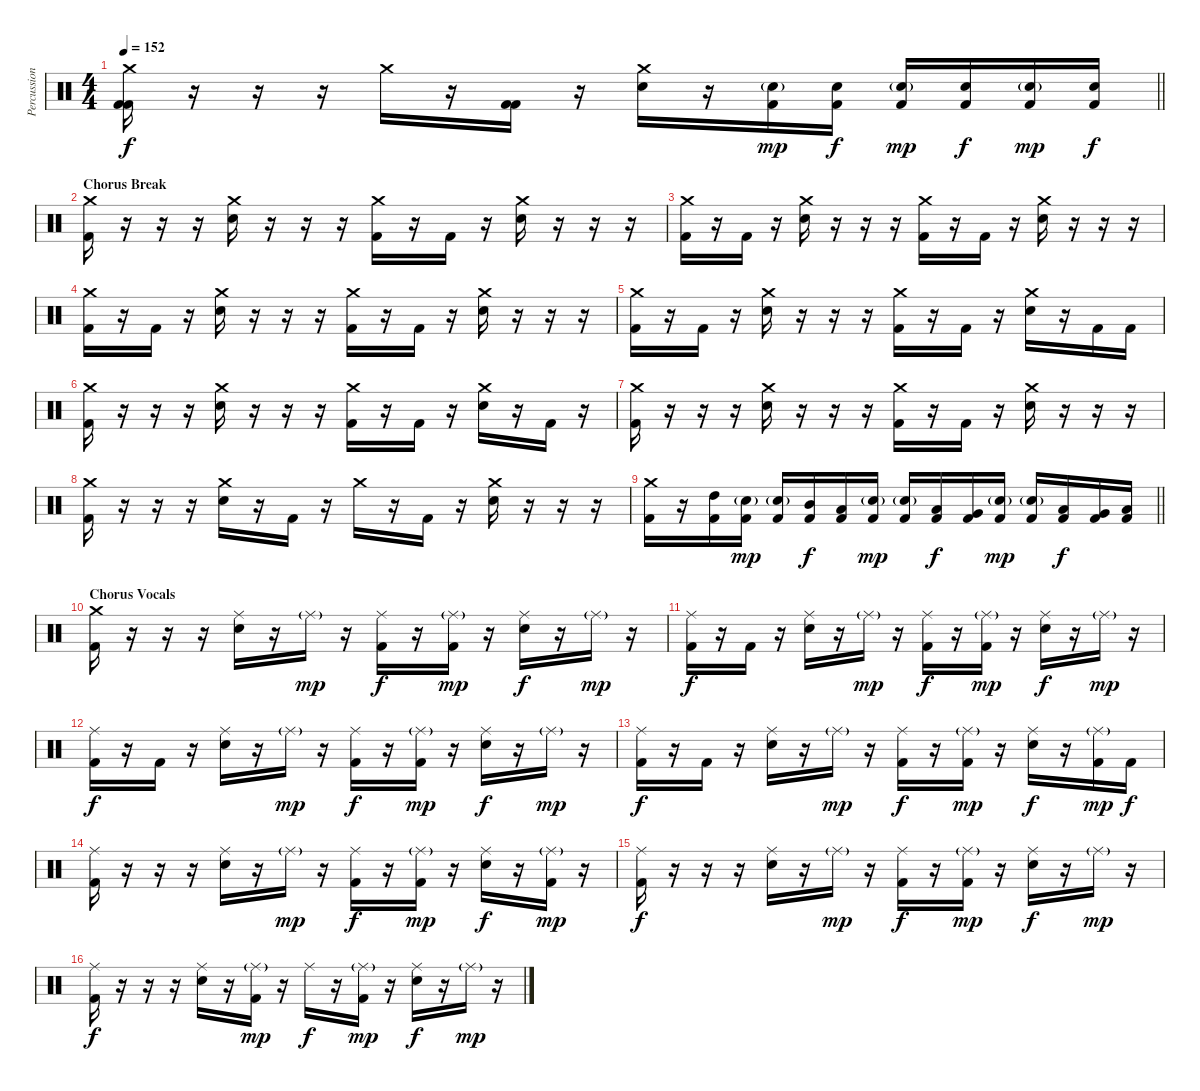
\track ("Percussion" "Percussion") {instrument percussion}
\staff {score}
\articulation defaults
\ts (4 4)
\tempo 152
\clef neutral
\barLineRight lightlight
\ks c
("Crash medium (hit)" "Kick (hit) 2" "Kick (hit) 2").16{dy f} r.16 r.16 r.16 "Crash medium (hit)".16 r.16 ("Kick (hit) 2" "Kick (hit) 2").16 r.16 ("Crash medium (hit)" "Snare (hit) 2").16 r.16 ("Snare (hit) 2"{g} "Kick (hit) 2").16{dy mp} ("Snare (hit) 2" "Kick (hit) 2").16{dy f} ("Snare (hit) 2"{g} "Kick (hit) 2").16{dy mp} ("Snare (hit) 2" "Kick (hit) 2").16{dy f} ("Snare (hit) 2"{g} "Kick (hit) 2").16{dy mp} ("Snare (hit) 2" "Kick (hit) 2").16{dy f} |
\section ("" "Chorus Break")
("Crash medium (hit)" "Kick (hit) 2").16 r.16 r.16 r.16 ("Crash medium (hit)" "Snare (hit) 2").16 r.16 r.16 r.16 ("Crash medium (hit)" "Kick (hit) 2").16 r.16 "Kick (hit) 2".16 r.16 ("Crash medium (hit)" "Snare (hit) 2").16 r.16 r.16 r.16 |
("Crash medium (hit)" "Kick (hit) 2").16 r.16 "Kick (hit) 2".16 r.16 ("Crash medium (hit)" "Snare (hit) 2").16 r.16 r.16 r.16 ("Crash medium (hit)" "Kick (hit) 2").16 r.16 "Kick (hit) 2".16 r.16 ("Crash medium (hit)" "Snare (hit) 2").16 r.16 r.16 r.16 |
("Crash medium (hit)" "Kick (hit) 2").16 r.16 "Kick (hit) 2".16 r.16 ("Crash medium (hit)" "Snare (hit) 2").16 r.16 r.16 r.16 ("Crash medium (hit)" "Kick (hit) 2").16 r.16 "Kick (hit) 2".16 r.16 ("Crash medium (hit)" "Snare (hit) 2").16 r.16 r.16 r.16 |
("Crash medium (hit)" "Kick (hit) 2").16 r.16 "Kick (hit) 2".16 r.16 ("Crash medium (hit)" "Snare (hit) 2").16 r.16 r.16 r.16 ("Crash medium (hit)" "Kick (hit) 2").16 r.16 "Kick (hit) 2".16 r.16 ("Crash medium (hit)" "Snare (hit) 2").16 r.16 "Kick (hit) 2".16 "Kick (hit) 2".16 |
("Crash medium (hit)" "Kick (hit) 2").16 r.16 r.16 r.16 ("Crash medium (hit)" "Snare (hit) 2").16 r.16 r.16 r.16 ("Crash medium (hit)" "Kick (hit) 2").16 r.16 "Kick (hit) 2".16 r.16 ("Crash medium (hit)" "Snare (hit) 2").16 r.16 "Kick (hit) 2".16 r.16 |
("Crash medium (hit)" "Kick (hit) 2").16 r.16 r.16 r.16 ("Crash medium (hit)" "Snare (hit) 2").16 r.16 r.16 r.16 ("Crash medium (hit)" "Kick (hit) 2").16 r.16 "Kick (hit) 2".16 r.16 ("Crash medium (hit)" "Snare (hit) 2").16 r.16 r.16 r.16 |
("Crash medium (hit)" "Kick (hit) 2").16 r.16 r.16 r.16 ("Crash medium (hit)" "Snare (hit) 2").16 r.16 "Kick (hit) 2".16 r.16 "Crash medium (hit)".16 r.16 "Kick (hit) 2".16 r.16 ("Crash medium (hit)" "Snare (hit) 2").16 r.16 r.16 r.16 |
\barLineRight lightlight
("Crash medium (hit)" "Kick (hit) 2").16 r.16 ("High Tom (hit)" "Kick (hit) 2").16 ("Snare (hit) 2"{g} "Kick (hit) 2").16{dy mp} ("Snare (hit) 2"{g} "Kick (hit) 2").16 ("Mid Tom (hit)" "Kick (hit) 2").16{dy f} ("Low Tom (hit)" "Kick (hit) 2").16 ("Snare (hit) 2"{g} "Kick (hit) 2").16{dy mp} ("Snare (hit) 2"{g} "Kick (hit) 2").16 ("Low Tom (hit)" "Kick (hit) 2").16{dy f} ("Very Low Tom (hit)" "Kick (hit) 2").16 ("Snare (hit) 2"{g} "Kick (hit) 2").16{dy mp} ("Snare (hit) 2"{g} "Kick (hit) 2").16 ("Low Tom (hit)" "Kick (hit) 2").16{dy f} ("Very Low Tom (hit)" "Kick (hit) 2").16 ("Low Floor Tom (hit)" "Kick (hit) 2").16 |
\section ("" "Chorus Vocals")
("Crash medium (hit)" "Kick (hit) 2").16 r.16 r.16 r.16 ("Ride (middle)" "Snare (hit) 2").16 r.16 "Ride (middle)"{g}.16{dy mp} r.16 ("Ride (middle)" "Kick (hit) 2").16{dy f} r.16 ("Ride (middle)"{g} "Kick (hit) 2").16{dy mp} r.16 ("Ride (middle)" "Snare (hit) 2").16{dy f} r.16 "Ride (middle)"{g}.16{dy mp} r.16 |
("Ride (middle)" "Kick (hit) 2").16{dy f} r.16 "Kick (hit) 2".16 r.16 ("Ride (middle)" "Snare (hit) 2").16 r.16 "Ride (middle)"{g}.16{dy mp} r.16 ("Ride (middle)" "Kick (hit) 2").16{dy f} r.16 ("Ride (middle)"{g} "Kick (hit) 2").16{dy mp} r.16 ("Ride (middle)" "Snare (hit) 2").16{dy f} r.16 "Ride (middle)"{g}.16{dy mp} r.16 |
("Ride (middle)" "Kick (hit) 2").16{dy f} r.16 "Kick (hit) 2".16 r.16 ("Ride (middle)" "Snare (hit) 2").16 r.16 "Ride (middle)"{g}.16{dy mp} r.16 ("Ride (middle)" "Kick (hit) 2").16{dy f} r.16 ("Ride (middle)"{g} "Kick (hit) 2").16{dy mp} r.16 ("Ride (middle)" "Snare (hit) 2").16{dy f} r.16 "Ride (middle)"{g}.16{dy mp} r.16 |
("Ride (middle)" "Kick (hit) 2").16{dy f} r.16 "Kick (hit) 2".16 r.16 ("Ride (middle)" "Snare (hit) 2").16 r.16 "Ride (middle)"{g}.16{dy mp} r.16 ("Ride (middle)" "Kick (hit) 2").16{dy f} r.16 ("Ride (middle)"{g} "Kick (hit) 2").16{dy mp} r.16 ("Ride (middle)" "Snare (hit) 2").16{dy f} r.16 ("Ride (middle)"{g} "Kick (hit) 2").16{dy mp} "Kick (hit) 2".16{dy f} |
("Ride (middle)" "Kick (hit) 2").16 r.16 r.16 r.16 ("Ride (middle)" "Snare (hit) 2").16 r.16 "Ride (middle)"{g}.16{dy mp} r.16 ("Ride (middle)" "Kick (hit) 2").16{dy f} r.16 ("Ride (middle)"{g} "Kick (hit) 2").16{dy mp} r.16 ("Ride (middle)" "Snare (hit) 2").16{dy f} r.16 ("Ride (middle)"{g} "Kick (hit) 2").16{dy mp} r.16 |
("Ride (middle)" "Kick (hit) 2").16{dy f} r.16 r.16 r.16 ("Ride (middle)" "Snare (hit) 2").16 r.16 "Ride (middle)"{g}.16{dy mp} r.16 ("Ride (middle)" "Kick (hit) 2").16{dy f} r.16 ("Ride (middle)"{g} "Kick (hit) 2").16{dy mp} r.16 ("Ride (middle)" "Snare (hit) 2").16{dy f} r.16 "Ride (middle)"{g}.16{dy mp} r.16 |
("Ride (middle)" "Kick (hit) 2").16{dy f} r.16 r.16 r.16 ("Ride (middle)" "Snare (hit) 2").16 r.16 ("Ride (middle)"{g} "Kick (hit) 2").16{dy mp} r.16 "Ride (middle)".16{dy f} r.16 ("Ride (middle)"{g} "Kick (hit) 2").16{dy mp} r.16 ("Ride (middle)" "Snare (hit) 2").16{dy f} r.16 "Ride (middle)"{g}.16{dy mp} r.16
